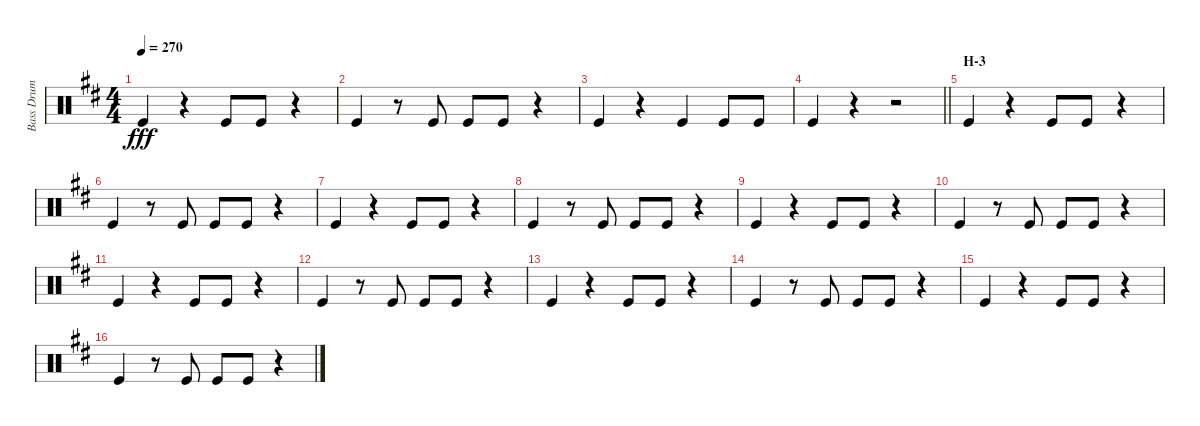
\track ("Bass Drum" "Bass Drum") {instrument percussion}
\staff {score}
\articulation defaults
\ts (4 4)
\tempo 270
\clef neutral
\ks d "Kick (hit)".4{dy fff}
r.4 "Kick (hit)".8 "Kick (hit)".8 r.4 |
"Kick (hit)".4 r.8 "Kick (hit)".8 "Kick (hit)".8 "Kick (hit)".8 r.4 |
"Kick (hit)".4 r.4 "Kick (hit)".4 "Kick (hit)".8 "Kick (hit)".8 |
\barLineRight lightlight "Kick (hit)".4
r.4 r.2 |
\section ("" "H-3")
"Kick (hit)".4 r.4 "Kick (hit)".8 "Kick (hit)".8 r.4 |
"Kick (hit)".4 r.8 "Kick (hit)".8 "Kick (hit)".8 "Kick (hit)".8 r.4 |
"Kick (hit)".4 r.4 "Kick (hit)".8 "Kick (hit)".8 r.4 |
"Kick (hit)".4 r.8 "Kick (hit)".8 "Kick (hit)".8 "Kick (hit)".8 r.4 |
"Kick (hit)".4 r.4 "Kick (hit)".8 "Kick (hit)".8 r.4 |
"Kick (hit)".4 r.8 "Kick (hit)".8 "Kick (hit)".8 "Kick (hit)".8 r.4 |
"Kick (hit)".4 r.4 "Kick (hit)".8 "Kick (hit)".8 r.4 |
"Kick (hit)".4 r.8 "Kick (hit)".8 "Kick (hit)".8 "Kick (hit)".8 r.4 |
"Kick (hit)".4 r.4 "Kick (hit)".8 "Kick (hit)".8 r.4 |
"Kick (hit)".4 r.8 "Kick (hit)".8 "Kick (hit)".8 "Kick (hit)".8 r.4 |
"Kick (hit)".4 r.4 "Kick (hit)".8 "Kick (hit)".8 r.4 |
"Kick (hit)".4 r.8 "Kick (hit)".8 "Kick (hit)".8 "Kick (hit)".8 r.4
